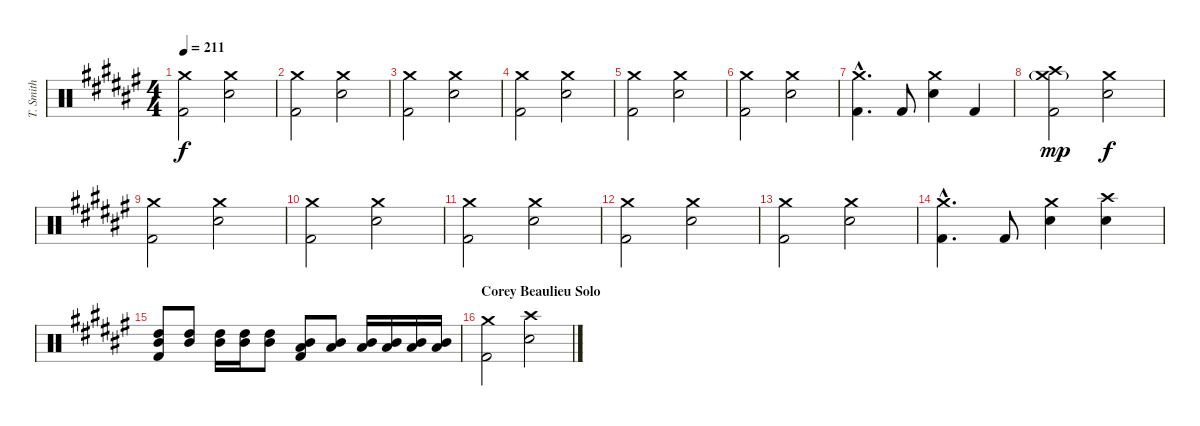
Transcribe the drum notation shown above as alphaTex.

\track ("T. Smith" "T. Smith") {instrument percussion}
\staff {score}
\articulation defaults
\ts (4 4)
\tempo 211
\clef neutral
\ks d#minor
("Crash medium (hit)" "Kick (hit) 2").2{dy f} ("Crash medium (hit)" "Electric Snare (hit)").2 |
("Crash medium (hit)" "Kick (hit) 2").2 ("Crash medium (hit)" "Electric Snare (hit)").2 |
("Crash medium (hit)" "Kick (hit) 2").2 ("Crash medium (hit)" "Electric Snare (hit)").2 |
("Crash medium (hit)" "Kick (hit) 2").2 ("Crash medium (hit)" "Electric Snare (hit)").2 |
("Crash medium (hit)" "Kick (hit) 2").2 ("Crash medium (hit)" "Electric Snare (hit)").2 |
("Crash medium (hit)" "Kick (hit) 2").2 ("Crash medium (hit)" "Electric Snare (hit)").2 |
("Crash medium (hit)"{hac} "Kick (hit) 2"{hac}).4{d} "Kick (hit) 2".8 ("Crash medium (hit)" "Electric Snare (hit)").4 "Kick (hit) 2".4 |
("Crash medium (hit)"{g} "Crash high (hit)" "Kick (hit) 2").2{dy mp} ("Crash medium (hit)" "Electric Snare (hit)").2{dy f} |
("Crash medium (hit)" "Kick (hit) 2").2 ("Crash medium (hit)" "Electric Snare (hit)").2 |
("Crash medium (hit)" "Kick (hit) 2").2 ("Crash medium (hit)" "Electric Snare (hit)").2 |
("Crash medium (hit)" "Kick (hit) 2").2 ("Crash medium (hit)" "Electric Snare (hit)").2 |
("Crash medium (hit)" "Kick (hit) 2").2 ("Crash medium (hit)" "Electric Snare (hit)").2 |
("Crash medium (hit)" "Kick (hit) 2").2 ("Crash medium (hit)" "Electric Snare (hit)").2 |
("Crash medium (hit)"{hac} "Kick (hit) 2"{hac}).4{d} "Kick (hit) 2".8 ("Crash medium (hit)" "Electric Snare (hit)").4 ("Crash high (hit)" "Electric Snare (hit)").4 |
("High Tom (hit)" "Mid Tom (hit)" "Kick (hit) 2").8 ("High Tom (hit)" "Mid Tom (hit)").8 ("High Tom (hit)" "Mid Tom (hit)").16 ("High Tom (hit)" "Mid Tom (hit)").16 ("High Tom (hit)" "Mid Tom (hit)").8 ("Mid Tom (hit)" "Low Tom (hit)" "Kick (hit) 2").8 ("Mid Tom (hit)" "Low Tom (hit)").8 ("Mid Tom (hit)" "Low Tom (hit)").16 ("Mid Tom (hit)" "Low Tom (hit)").16 ("Mid Tom (hit)" "Low Tom (hit)").16 ("Mid Tom (hit)" "Low Tom (hit)").16 |
\section ("" "Corey Beaulieu Solo")
("Crash medium (hit)" "Kick (hit) 2").2 ("Crash high (hit)" "Electric Snare (hit)").2
